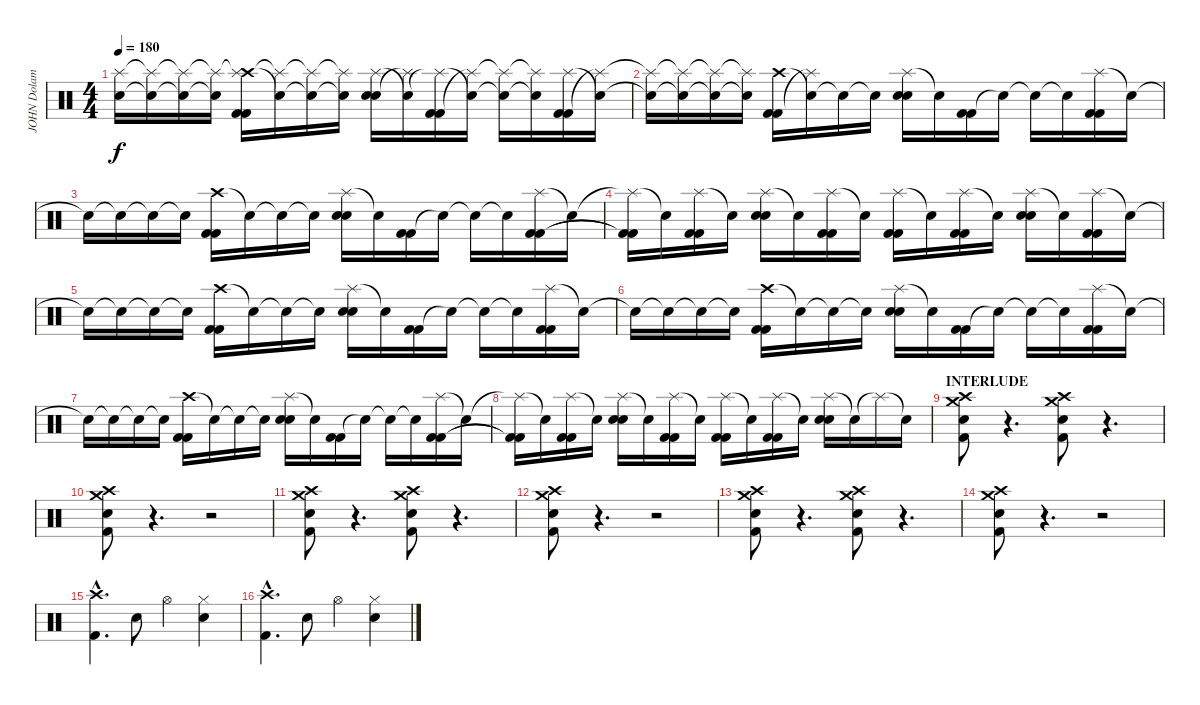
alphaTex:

\track ("JOHN Dolamyan" "JOHN Dolam") {instrument percussion}
\staff {score}
\articulation defaults
\ts (4 4)
\tempo 180
\clef neutral
\ks c
("Snare (hit)"{t} "Splash (hit)"{t}).16{dy f} ("Snare (hit)"{t} "Splash (hit)"{t}).16 ("Snare (hit)"{t} "Splash (hit)"{t}).16 ("Snare (hit)"{t} "Splash (hit)"{t}).16 ("Crash high (hit)" "Splash (hit)"{t} "Kick (hit) 2" "Kick (hit) 2").16 ("Snare (hit)"{t} "Splash (hit)"{t}).16 ("Snare (hit)"{t} "Splash (hit)"{t}).16 ("Snare (hit)"{t} "Splash (hit)"{t}).16 ("Splash (hit)" "Electric Snare (hit)" "Electric Snare (hit)").16 ("Snare (hit)"{t} "Splash (hit)"{t}).16 ("Splash (hit)"{t} "Kick (hit) 2" "Kick (hit) 2").16 ("Snare (hit)"{t} "Splash (hit)"{t}).16 ("Snare (hit)"{t} "Splash (hit)"{t}).16 ("Snare (hit)"{t} "Splash (hit)"{t}).16 ("Splash (hit)" "Kick (hit) 2" "Kick (hit) 2").16 ("Snare (hit)"{t} "Splash (hit)"{t}).16 |
("Snare (hit)"{t} "Splash (hit)"{t}).16 ("Snare (hit)"{t} "Splash (hit)"{t}).16 ("Snare (hit)"{t} "Splash (hit)"{t}).16 ("Snare (hit)"{t} "Splash (hit)"{t}).16 ("Crash high (hit)" "Kick (hit) 2" "Kick (hit) 2").16 ("Snare (hit)"{t} "Splash (hit)"{t}).16 "Snare (hit)"{t}.16 "Snare (hit)"{t}.16 ("Splash (hit)" "Electric Snare (hit)" "Electric Snare (hit)").16 "Snare (hit)"{t}.16 ("Kick (hit) 2" "Kick (hit) 2").16 "Snare (hit)"{t}.16 "Snare (hit)"{t}.16 "Snare (hit)"{t}.16 ("Splash (hit)" "Kick (hit) 2" "Kick (hit) 2").16 "Snare (hit)"{t}.16 |
"Snare (hit)"{t}.16 "Snare (hit)"{t}.16 "Snare (hit)"{t}.16 "Snare (hit)"{t}.16 ("Crash high (hit)" "Kick (hit) 2" "Kick (hit) 2").16 "Snare (hit)"{t}.16 "Snare (hit)"{t}.16 "Snare (hit)"{t}.16 ("Splash (hit)" "Electric Snare (hit)" "Electric Snare (hit)").16 "Snare (hit)"{t}.16 ("Kick (hit) 2" "Kick (hit) 2").16 "Snare (hit)"{t}.16 "Snare (hit)"{t}.16 "Snare (hit)"{t}.16 ("Splash (hit)" "Kick (hit) 2" "Kick (hit) 2").16 "Snare (hit)"{t}.16 |
("Splash (hit)"{t} "Kick (hit) 2"{t} "Kick (hit) 2"{t}).16 "Snare (hit)"{t}.16 ("Splash (hit)" "Kick (hit) 2" "Kick (hit) 2").16 "Snare (hit)"{t}.16 ("Splash (hit)" "Electric Snare (hit)" "Electric Snare (hit)").16 "Snare (hit)"{t}.16 ("Splash (hit)" "Kick (hit) 2" "Kick (hit) 2").16 "Snare (hit)"{t}.16 ("Splash (hit)" "Kick (hit) 2" "Kick (hit) 2").16 "Snare (hit)"{t}.16 ("Splash (hit)" "Kick (hit) 2" "Kick (hit) 2").16 "Snare (hit)"{t}.16 ("Splash (hit)" "Electric Snare (hit)" "Electric Snare (hit)").16 "Snare (hit)"{t}.16 ("Splash (hit)" "Kick (hit) 2" "Kick (hit) 2").16 "Snare (hit)"{t}.16 |
"Snare (hit)"{t}.16 "Snare (hit)"{t}.16 "Snare (hit)"{t}.16 "Snare (hit)"{t}.16 ("Crash high (hit)" "Kick (hit) 2" "Kick (hit) 2").16 "Snare (hit)"{t}.16 "Snare (hit)"{t}.16 "Snare (hit)"{t}.16 ("Splash (hit)" "Electric Snare (hit)" "Electric Snare (hit)").16 "Snare (hit)"{t}.16 ("Kick (hit) 2" "Kick (hit) 2").16 "Snare (hit)"{t}.16 "Snare (hit)"{t}.16 "Snare (hit)"{t}.16 ("Splash (hit)" "Kick (hit) 2" "Kick (hit) 2").16 "Snare (hit)"{t}.16 |
"Snare (hit)"{t}.16 "Snare (hit)"{t}.16 "Snare (hit)"{t}.16 "Snare (hit)"{t}.16 ("Crash high (hit)" "Kick (hit) 2" "Kick (hit) 2").16 "Snare (hit)"{t}.16 "Snare (hit)"{t}.16 "Snare (hit)"{t}.16 ("Splash (hit)" "Electric Snare (hit)" "Electric Snare (hit)").16 "Snare (hit)"{t}.16 ("Kick (hit) 2" "Kick (hit) 2").16 "Snare (hit)"{t}.16 "Snare (hit)"{t}.16 "Snare (hit)"{t}.16 ("Splash (hit)" "Kick (hit) 2" "Kick (hit) 2").16 "Snare (hit)"{t}.16 |
"Snare (hit)"{t}.16 "Snare (hit)"{t}.16 "Snare (hit)"{t}.16 "Snare (hit)"{t}.16 ("Crash high (hit)" "Kick (hit) 2" "Kick (hit) 2").16 "Snare (hit)"{t}.16 "Snare (hit)"{t}.16 "Snare (hit)"{t}.16 ("Splash (hit)" "Electric Snare (hit)" "Electric Snare (hit)").16 "Snare (hit)"{t}.16 ("Kick (hit) 2" "Kick (hit) 2").16 "Snare (hit)"{t}.16 "Snare (hit)"{t}.16 "Snare (hit)"{t}.16 ("Splash (hit)" "Kick (hit) 2" "Kick (hit) 2").16 "Snare (hit)"{t}.16 |
("Splash (hit)"{t} "Kick (hit) 2"{t} "Kick (hit) 2"{t}).16 "Snare (hit)"{t}.16 ("Splash (hit)" "Kick (hit) 2" "Kick (hit) 2").16 "Snare (hit)"{t}.16 ("Splash (hit)" "Electric Snare (hit)" "Electric Snare (hit)").16 "Snare (hit)"{t}.16 ("Splash (hit)" "Kick (hit) 2" "Kick (hit) 2").16 "Snare (hit)"{t}.16 ("Splash (hit)" "Kick (hit) 2" "Kick (hit) 2").16 "Snare (hit)"{t}.16 ("Splash (hit)" "Kick (hit) 2" "Kick (hit) 2").16 "Snare (hit)"{t}.16 ("Splash (hit)" "Electric Snare (hit)" "Electric Snare (hit)").16 "Snare (hit)"{t}.16 "Splash (hit)"{t}.16 "Snare (hit)"{t}.16 |
\section ("" "INTERLUDE")
("Crash medium (hit)" "Crash high (hit)" "Electric Snare (hit)" "Kick (hit) 2").8 r.4{d} ("Crash medium (hit)" "Crash high (hit)" "Electric Snare (hit)" "Kick (hit) 2").8 r.4{d} |
("Crash medium (hit)" "Crash high (hit)" "Electric Snare (hit)" "Kick (hit) 2").8 r.4{d} r.2 |
("Crash medium (hit)" "Crash high (hit)" "Electric Snare (hit)" "Kick (hit) 2").8 r.4{d} ("Crash medium (hit)" "Crash high (hit)" "Electric Snare (hit)" "Kick (hit) 2").8 r.4{d} |
("Crash medium (hit)" "Crash high (hit)" "Electric Snare (hit)" "Kick (hit) 2").8 r.4{d} r.2 |
("Crash medium (hit)" "Crash high (hit)" "Electric Snare (hit)" "Kick (hit) 2").8 r.4{d} ("Crash medium (hit)" "Crash high (hit)" "Electric Snare (hit)" "Kick (hit) 2").8 r.4{d} |
("Crash medium (hit)" "Crash high (hit)" "Electric Snare (hit)" "Kick (hit) 2").8 r.4{d} r.2 |
("Crash high (hit)"{hac} "Kick (hit) 2"{hac}).4{d} "Electric Snare (hit)".8 "Hi-Hat (open)".4 ("Hi-Hat (closed)" "Electric Snare (hit)").4 |
("Crash high (hit)"{hac} "Kick (hit) 2"{hac}).4{d} "Electric Snare (hit)".8 "Hi-Hat (open)".4 ("Hi-Hat (closed)" "Electric Snare (hit)").4
